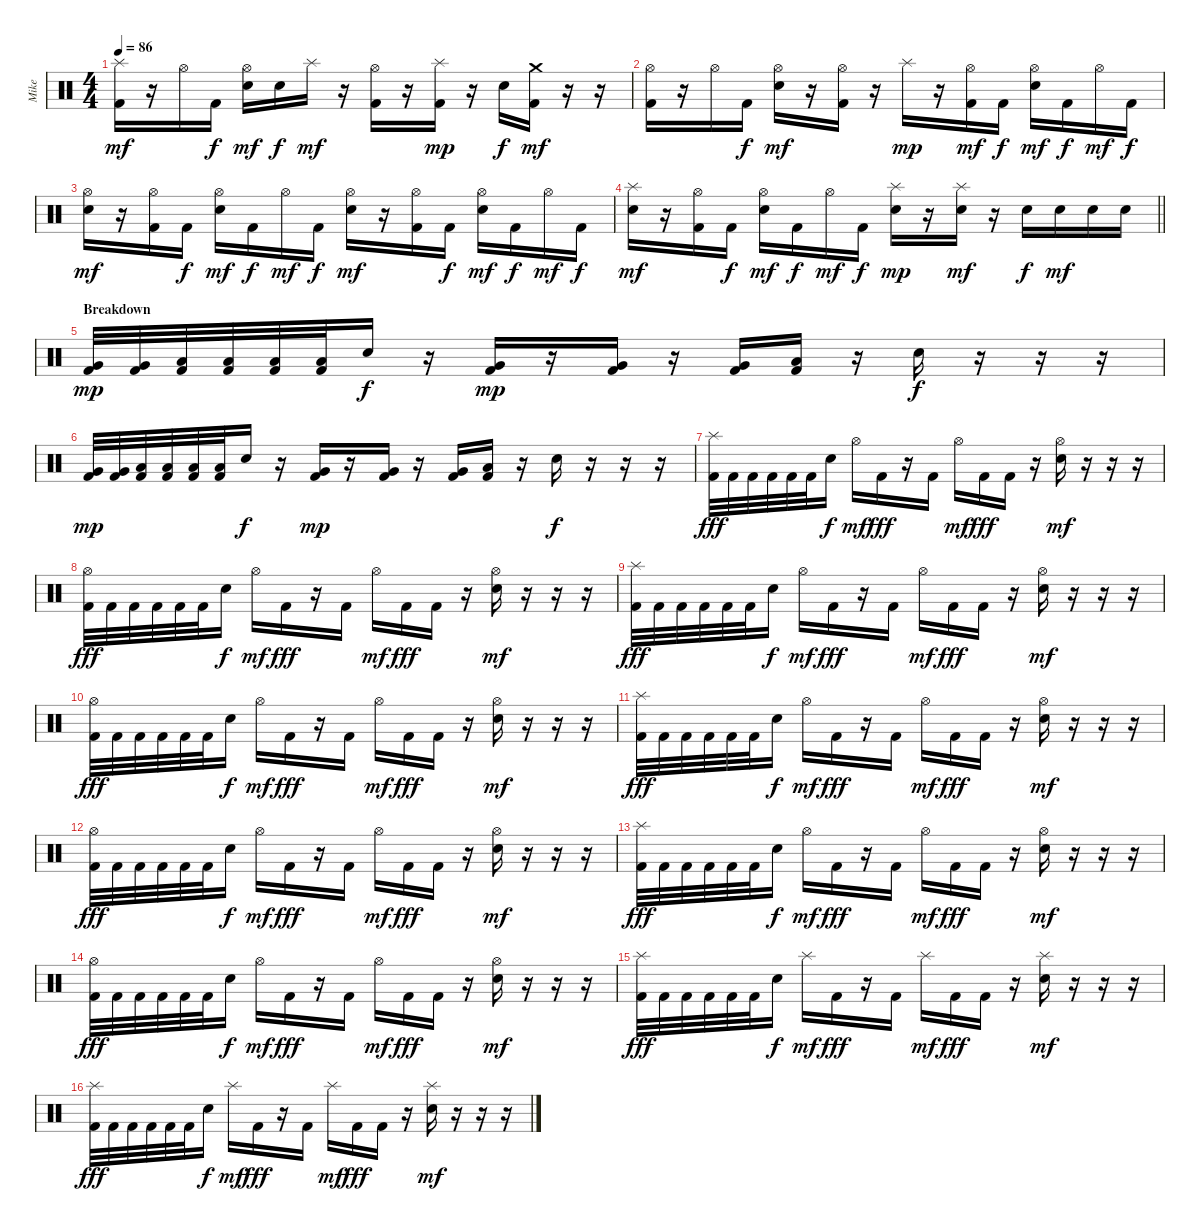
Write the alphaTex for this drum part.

\track ("Mike" "Mike") {instrument percussion}
\staff {score}
\articulation defaults
\ts (4 4)
\tempo 86
\clef neutral
\ks c
("Splash (hit)" "Kick (hit) 2").16{dy mf} r.16 "Hi-Hat (open)".16 "Kick (hit) 2".16{dy f} ("Hi-Hat (open)" "Snare (hit) 2").16{dy mf} "Snare (hit) 2".16{dy f} "Splash (hit)".16{dy mf} r.16 ("Hi-Hat (open)" "Kick (hit) 2").16 r.16 ("Splash (hit)" "Kick (hit) 2").16{dy mp} r.16 "Snare (hit) 2".16{dy f} ("Crash medium (hit)" "Kick (hit) 2").16{dy mf} r.16 r.16 |
("Hi-Hat (open)" "Kick (hit) 2").16 r.16 "Hi-Hat (open)".16 "Kick (hit) 2".16{dy f} ("Hi-Hat (open)" "Snare (hit) 2").16{dy mf} r.16 ("Hi-Hat (open)" "Kick (hit) 2").16 r.16 "Splash (hit)".16{dy mp} r.16 ("Hi-Hat (open)" "Kick (hit) 2").16{dy mf} "Kick (hit) 2".16{dy f} ("Hi-Hat (open)" "Snare (hit) 2").16{dy mf} "Kick (hit) 2".16{dy f} "Hi-Hat (open)".16{dy mf} "Kick (hit) 2".16{dy f} |
("Hi-Hat (open)" "Snare (hit) 2").16{dy mf} r.16 ("Hi-Hat (open)" "Kick (hit) 2").16 "Kick (hit) 2".16{dy f} ("Hi-Hat (open)" "Snare (hit) 2").16{dy mf} "Kick (hit) 2".16{dy f} "Hi-Hat (open)".16{dy mf} "Kick (hit) 2".16{dy f} ("Hi-Hat (open)" "Snare (hit) 2").16{dy mf} r.16 ("Hi-Hat (open)" "Kick (hit) 2").16 "Kick (hit) 2".16{dy f} ("Hi-Hat (open)" "Snare (hit) 2").16{dy mf} "Kick (hit) 2".16{dy f} "Hi-Hat (open)".16{dy mf} "Kick (hit) 2".16{dy f} |
\barLineRight lightlight
("Splash (hit)" "Snare (hit) 2").16{dy mf} r.16 ("Hi-Hat (open)" "Kick (hit) 2").16 "Kick (hit) 2".16{dy f} ("Hi-Hat (open)" "Snare (hit) 2").16{dy mf} "Kick (hit) 2".16{dy f} "Hi-Hat (open)".16{dy mf} "Kick (hit) 2".16{dy f} ("Splash (hit)" "Snare (hit) 2").16{dy mp} r.16 ("Splash (hit)" "Snare (hit) 2").16{dy mf} r.16 "Snare (hit) 2".16{dy f} "Snare (hit) 2".16{dy mf} "Snare (hit) 2".16 "Snare (hit) 2".16 |
\section ("" "Breakdown")
("Very Low Tom (hit)" "Kick (hit) 2").32{dy mp} ("Very Low Tom (hit)" "Kick (hit) 2").32 ("Low Floor Tom (hit)" "Kick (hit) 2").32 ("Low Floor Tom (hit)" "Kick (hit) 2").32 ("Low Floor Tom (hit)" "Kick (hit) 2").32 ("Low Floor Tom (hit)" "Kick (hit) 2").32 "Snare (hit) 2".16{dy f} r.16 ("Very Low Tom (hit)" "Kick (hit) 2").16{dy mp} r.16 ("Very Low Tom (hit)" "Kick (hit) 2").16 r.16 ("Very Low Tom (hit)" "Kick (hit) 2").16 ("Low Floor Tom (hit)" "Kick (hit) 2").16 r.16 "Snare (hit) 2".16{dy f} r.16 r.16 r.16 |
("Very Low Tom (hit)" "Kick (hit) 2").32{dy mp} ("Very Low Tom (hit)" "Kick (hit) 2").32 ("Low Floor Tom (hit)" "Kick (hit) 2").32 ("Low Floor Tom (hit)" "Kick (hit) 2").32 ("Low Floor Tom (hit)" "Kick (hit) 2").32 ("Low Floor Tom (hit)" "Kick (hit) 2").32 "Snare (hit) 2".16{dy f} r.16 ("Very Low Tom (hit)" "Kick (hit) 2").16{dy mp} r.16 ("Very Low Tom (hit)" "Kick (hit) 2").16 r.16 ("Very Low Tom (hit)" "Kick (hit) 2").16 ("Low Floor Tom (hit)" "Kick (hit) 2").16 r.16 "Snare (hit) 2".16{dy f} r.16 r.16 r.16 |
("Splash (hit)" "Kick (hit) 2").32{dy fff} "Kick (hit) 2".32 "Kick (hit) 2".32 "Kick (hit) 2".32 "Kick (hit) 2".32 "Kick (hit) 2".32 "Snare (hit) 2".16{dy f} "Hi-Hat (open)".16{dy mf} "Kick (hit) 2".16{dy fff} r.16 "Kick (hit) 2".16 "Hi-Hat (open)".16{dy mf} "Kick (hit) 2".16{dy fff} "Kick (hit) 2".16 r.16 ("Hi-Hat (open)" "Snare (hit) 2").16{dy mf} r.16 r.16 r.16 |
("Hi-Hat (open)" "Kick (hit) 2").32{dy fff} "Kick (hit) 2".32 "Kick (hit) 2".32 "Kick (hit) 2".32 "Kick (hit) 2".32 "Kick (hit) 2".32 "Snare (hit) 2".16{dy f} "Hi-Hat (open)".16{dy mf} "Kick (hit) 2".16{dy fff} r.16 "Kick (hit) 2".16 "Hi-Hat (open)".16{dy mf} "Kick (hit) 2".16{dy fff} "Kick (hit) 2".16 r.16 ("Hi-Hat (open)" "Snare (hit) 2").16{dy mf} r.16 r.16 r.16 |
("Splash (hit)" "Kick (hit) 2").32{dy fff} "Kick (hit) 2".32 "Kick (hit) 2".32 "Kick (hit) 2".32 "Kick (hit) 2".32 "Kick (hit) 2".32 "Snare (hit) 2".16{dy f} "Hi-Hat (open)".16{dy mf} "Kick (hit) 2".16{dy fff} r.16 "Kick (hit) 2".16 "Hi-Hat (open)".16{dy mf} "Kick (hit) 2".16{dy fff} "Kick (hit) 2".16 r.16 ("Hi-Hat (open)" "Snare (hit) 2").16{dy mf} r.16 r.16 r.16 |
("Hi-Hat (open)" "Kick (hit) 2").32{dy fff} "Kick (hit) 2".32 "Kick (hit) 2".32 "Kick (hit) 2".32 "Kick (hit) 2".32 "Kick (hit) 2".32 "Snare (hit) 2".16{dy f} "Hi-Hat (open)".16{dy mf} "Kick (hit) 2".16{dy fff} r.16 "Kick (hit) 2".16 "Hi-Hat (open)".16{dy mf} "Kick (hit) 2".16{dy fff} "Kick (hit) 2".16 r.16 ("Hi-Hat (open)" "Snare (hit) 2").16{dy mf} r.16 r.16 r.16 |
("Splash (hit)" "Kick (hit) 2").32{dy fff} "Kick (hit) 2".32 "Kick (hit) 2".32 "Kick (hit) 2".32 "Kick (hit) 2".32 "Kick (hit) 2".32 "Snare (hit) 2".16{dy f} "Hi-Hat (open)".16{dy mf} "Kick (hit) 2".16{dy fff} r.16 "Kick (hit) 2".16 "Hi-Hat (open)".16{dy mf} "Kick (hit) 2".16{dy fff} "Kick (hit) 2".16 r.16 ("Hi-Hat (open)" "Snare (hit) 2").16{dy mf} r.16 r.16 r.16 |
("Hi-Hat (open)" "Kick (hit) 2").32{dy fff} "Kick (hit) 2".32 "Kick (hit) 2".32 "Kick (hit) 2".32 "Kick (hit) 2".32 "Kick (hit) 2".32 "Snare (hit) 2".16{dy f} "Hi-Hat (open)".16{dy mf} "Kick (hit) 2".16{dy fff} r.16 "Kick (hit) 2".16 "Hi-Hat (open)".16{dy mf} "Kick (hit) 2".16{dy fff} "Kick (hit) 2".16 r.16 ("Hi-Hat (open)" "Snare (hit) 2").16{dy mf} r.16 r.16 r.16 |
("Splash (hit)" "Kick (hit) 2").32{dy fff} "Kick (hit) 2".32 "Kick (hit) 2".32 "Kick (hit) 2".32 "Kick (hit) 2".32 "Kick (hit) 2".32 "Snare (hit) 2".16{dy f} "Hi-Hat (open)".16{dy mf} "Kick (hit) 2".16{dy fff} r.16 "Kick (hit) 2".16 "Hi-Hat (open)".16{dy mf} "Kick (hit) 2".16{dy fff} "Kick (hit) 2".16 r.16 ("Hi-Hat (open)" "Snare (hit) 2").16{dy mf} r.16 r.16 r.16 |
("Hi-Hat (open)" "Kick (hit) 2").32{dy fff} "Kick (hit) 2".32 "Kick (hit) 2".32 "Kick (hit) 2".32 "Kick (hit) 2".32 "Kick (hit) 2".32 "Snare (hit) 2".16{dy f} "Hi-Hat (open)".16{dy mf} "Kick (hit) 2".16{dy fff} r.16 "Kick (hit) 2".16 "Hi-Hat (open)".16{dy mf} "Kick (hit) 2".16{dy fff} "Kick (hit) 2".16 r.16 ("Hi-Hat (open)" "Snare (hit) 2").16{dy mf} r.16 r.16 r.16 |
("Splash (hit)" "Kick (hit) 2").32{dy fff} "Kick (hit) 2".32 "Kick (hit) 2".32 "Kick (hit) 2".32 "Kick (hit) 2".32 "Kick (hit) 2".32 "Snare (hit) 2".16{dy f} "Splash (hit)".16{dy mf} "Kick (hit) 2".16{dy fff} r.16 "Kick (hit) 2".16 "Splash (hit)".16{dy mf} "Kick (hit) 2".16{dy fff} "Kick (hit) 2".16 r.16 ("Splash (hit)" "Snare (hit) 2").16{dy mf} r.16 r.16 r.16 |
("Splash (hit)" "Kick (hit) 2").32{dy fff} "Kick (hit) 2".32 "Kick (hit) 2".32 "Kick (hit) 2".32 "Kick (hit) 2".32 "Kick (hit) 2".32 "Snare (hit) 2".16{dy f} "Splash (hit)".16{dy mf} "Kick (hit) 2".16{dy fff} r.16 "Kick (hit) 2".16 "Splash (hit)".16{dy mf} "Kick (hit) 2".16{dy fff} "Kick (hit) 2".16 r.16 ("Splash (hit)" "Snare (hit) 2").16{dy mf} r.16 r.16 r.16
